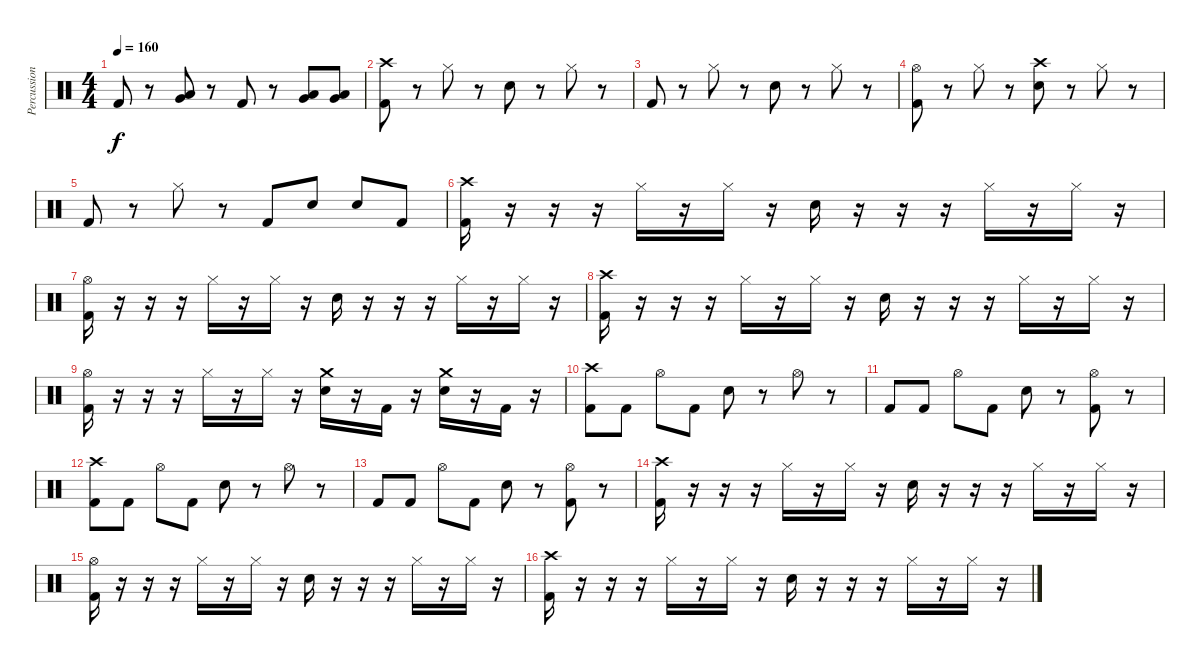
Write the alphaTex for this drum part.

\track ("Percussion" "Percussion") {instrument percussion}
\staff {score}
\articulation defaults
\ts (4 4)
\tempo 160
\clef neutral
\ks c "Kick (hit) 2".8{dy f}
r.8 ("Very Low Tom (hit)" "Low Floor Tom (hit)").8 r.8 "Kick (hit) 2".8 r.8 ("Low Tom (hit)" "Very Low Tom (hit)").8 ("Very Low Tom (hit)" "Low Floor Tom (hit)").8 |
("Crash high (hit)" "Kick (hit) 2").8 r.8 "Hi-Hat (closed)".8 r.8 "Snare (hit) 2".8 r.8 "Hi-Hat (closed)".8 r.8 |
"Kick (hit) 2".8 r.8 "Hi-Hat (closed)".8 r.8 "Snare (hit) 2".8 r.8 "Hi-Hat (closed)".8 r.8 |
("Hi-Hat (open)" "Kick (hit) 2").8 r.8 "Hi-Hat (closed)".8 r.8 ("Crash high (hit)" "Snare (hit) 2").8 r.8 "Hi-Hat (closed)".8 r.8 |
"Kick (hit) 2".8 r.8 "Hi-Hat (closed)".8 r.8 "Kick (hit) 2".8 "Snare (hit) 2".8 "Snare (hit) 2".8 "Kick (hit) 2".8 |
("Crash high (hit)" "Kick (hit) 2").16 r.16 r.16 r.16 "Hi-Hat (closed)".16 r.16 "Hi-Hat (closed)".16 r.16 "Snare (hit) 2".16 r.16 r.16 r.16 "Hi-Hat (closed)".16 r.16 "Hi-Hat (closed)".16 r.16 |
("Hi-Hat (open)" "Kick (hit) 2").16 r.16 r.16 r.16 "Hi-Hat (closed)".16 r.16 "Hi-Hat (closed)".16 r.16 "Snare (hit) 2".16 r.16 r.16 r.16 "Hi-Hat (closed)".16 r.16 "Hi-Hat (closed)".16 r.16 |
("Crash high (hit)" "Kick (hit) 2").16 r.16 r.16 r.16 "Hi-Hat (closed)".16 r.16 "Hi-Hat (closed)".16 r.16 "Snare (hit) 2".16 r.16 r.16 r.16 "Hi-Hat (closed)".16 r.16 "Hi-Hat (closed)".16 r.16 |
("Hi-Hat (open)" "Kick (hit) 2").16 r.16 r.16 r.16 "Hi-Hat (closed)".16 r.16 "Hi-Hat (closed)".16 r.16 ("Crash medium (hit)" "Snare (hit) 2").16 r.16 "Kick (hit) 2".16 r.16 ("Crash medium (hit)" "Snare (hit) 2").16 r.16 "Kick (hit) 2".16 r.16 |
("Crash high (hit)" "Kick (hit) 2").8 "Kick (hit) 2".8 "Hi-Hat (open)".8 "Kick (hit) 2".8 "Snare (hit) 2".8 r.8 "Hi-Hat (open)".8 r.8 |
"Kick (hit) 2".8 "Kick (hit) 2".8 "Hi-Hat (open)".8 "Kick (hit) 2".8 "Snare (hit) 2".8 r.8 ("Hi-Hat (open)" "Kick (hit) 2").8 r.8 |
("Crash high (hit)" "Kick (hit) 2").8 "Kick (hit) 2".8 "Hi-Hat (open)".8 "Kick (hit) 2".8 "Snare (hit) 2".8 r.8 "Hi-Hat (open)".8 r.8 |
"Kick (hit) 2".8 "Kick (hit) 2".8 "Hi-Hat (open)".8 "Kick (hit) 2".8 "Snare (hit) 2".8 r.8 ("Hi-Hat (open)" "Kick (hit) 2").8 r.8 |
("Crash high (hit)" "Kick (hit) 2").16 r.16 r.16 r.16 "Hi-Hat (closed)".16 r.16 "Hi-Hat (closed)".16 r.16 "Snare (hit) 2".16 r.16 r.16 r.16 "Hi-Hat (closed)".16 r.16 "Hi-Hat (closed)".16 r.16 |
("Hi-Hat (open)" "Kick (hit) 2").16 r.16 r.16 r.16 "Hi-Hat (closed)".16 r.16 "Hi-Hat (closed)".16 r.16 "Snare (hit) 2".16 r.16 r.16 r.16 "Hi-Hat (closed)".16 r.16 "Hi-Hat (closed)".16 r.16 |
("Crash high (hit)" "Kick (hit) 2").16 r.16 r.16 r.16 "Hi-Hat (closed)".16 r.16 "Hi-Hat (closed)".16 r.16 "Snare (hit) 2".16 r.16 r.16 r.16 "Hi-Hat (closed)".16 r.16 "Hi-Hat (closed)".16 r.16
